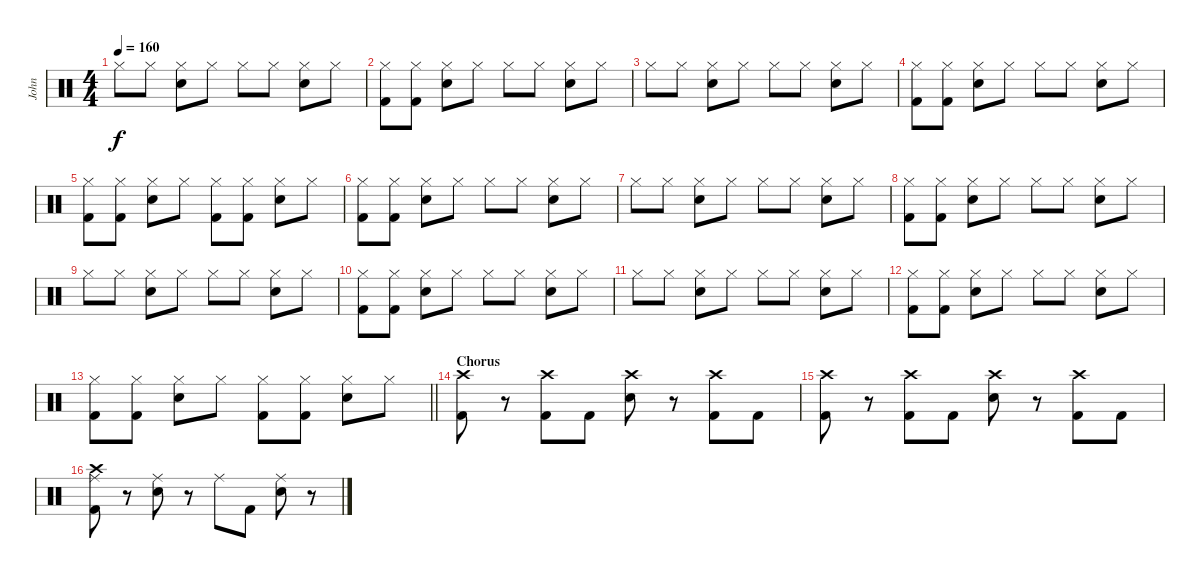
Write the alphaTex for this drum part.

\track ("John" "John") {instrument percussion}
\staff {score}
\articulation defaults
\ts (4 4)
\tempo 160
\clef neutral
\ks c "Hi-Hat (closed)".8{dy f} "Hi-Hat (closed)".8
("Hi-Hat (closed)" "Snare (hit) 2").8 "Hi-Hat (closed)".8 "Hi-Hat (closed)".8 "Hi-Hat (closed)".8 ("Hi-Hat (closed)" "Snare (hit) 2").8 "Hi-Hat (closed)".8 |
("Hi-Hat (closed)" "Kick (hit) 2").8 ("Hi-Hat (closed)" "Kick (hit) 2").8 ("Hi-Hat (closed)" "Snare (hit) 2").8 "Hi-Hat (closed)".8 "Hi-Hat (closed)".8 "Hi-Hat (closed)".8 ("Hi-Hat (closed)" "Snare (hit) 2").8 "Hi-Hat (closed)".8 |
"Hi-Hat (closed)".8 "Hi-Hat (closed)".8 ("Hi-Hat (closed)" "Snare (hit) 2").8 "Hi-Hat (closed)".8 "Hi-Hat (closed)".8 "Hi-Hat (closed)".8 ("Hi-Hat (closed)" "Snare (hit) 2").8 "Hi-Hat (closed)".8 |
("Hi-Hat (closed)" "Kick (hit) 2").8 ("Hi-Hat (closed)" "Kick (hit) 2").8 ("Hi-Hat (closed)" "Snare (hit) 2").8 "Hi-Hat (closed)".8 "Hi-Hat (closed)".8 "Hi-Hat (closed)".8 ("Hi-Hat (closed)" "Snare (hit) 2").8 "Hi-Hat (closed)".8 |
("Hi-Hat (closed)" "Kick (hit) 2").8 ("Hi-Hat (closed)" "Kick (hit) 2").8 ("Hi-Hat (closed)" "Snare (hit) 2").8 "Hi-Hat (closed)".8 ("Hi-Hat (closed)" "Kick (hit) 2").8 ("Hi-Hat (closed)" "Kick (hit) 2").8 ("Hi-Hat (closed)" "Snare (hit) 2").8 "Hi-Hat (closed)".8 |
("Hi-Hat (closed)" "Kick (hit) 2").8 ("Hi-Hat (closed)" "Kick (hit) 2").8 ("Hi-Hat (closed)" "Snare (hit) 2").8 "Hi-Hat (closed)".8 "Hi-Hat (closed)".8 "Hi-Hat (closed)".8 ("Hi-Hat (closed)" "Snare (hit) 2").8 "Hi-Hat (closed)".8 |
"Hi-Hat (closed)".8 "Hi-Hat (closed)".8 ("Hi-Hat (closed)" "Snare (hit) 2").8 "Hi-Hat (closed)".8 "Hi-Hat (closed)".8 "Hi-Hat (closed)".8 ("Hi-Hat (closed)" "Snare (hit) 2").8 "Hi-Hat (closed)".8 |
("Hi-Hat (closed)" "Kick (hit) 2").8 ("Hi-Hat (closed)" "Kick (hit) 2").8 ("Hi-Hat (closed)" "Snare (hit) 2").8 "Hi-Hat (closed)".8 "Hi-Hat (closed)".8 "Hi-Hat (closed)".8 ("Hi-Hat (closed)" "Snare (hit) 2").8 "Hi-Hat (closed)".8 |
"Hi-Hat (closed)".8 "Hi-Hat (closed)".8 ("Hi-Hat (closed)" "Snare (hit) 2").8 "Hi-Hat (closed)".8 "Hi-Hat (closed)".8 "Hi-Hat (closed)".8 ("Hi-Hat (closed)" "Snare (hit) 2").8 "Hi-Hat (closed)".8 |
("Hi-Hat (closed)" "Kick (hit) 2").8 ("Hi-Hat (closed)" "Kick (hit) 2").8 ("Hi-Hat (closed)" "Snare (hit) 2").8 "Hi-Hat (closed)".8 "Hi-Hat (closed)".8 "Hi-Hat (closed)".8 ("Hi-Hat (closed)" "Snare (hit) 2").8 "Hi-Hat (closed)".8 |
"Hi-Hat (closed)".8 "Hi-Hat (closed)".8 ("Hi-Hat (closed)" "Snare (hit) 2").8 "Hi-Hat (closed)".8 "Hi-Hat (closed)".8 "Hi-Hat (closed)".8 ("Hi-Hat (closed)" "Snare (hit) 2").8 "Hi-Hat (closed)".8 |
("Hi-Hat (closed)" "Kick (hit) 2").8 ("Hi-Hat (closed)" "Kick (hit) 2").8 ("Hi-Hat (closed)" "Snare (hit) 2").8 "Hi-Hat (closed)".8 "Hi-Hat (closed)".8 "Hi-Hat (closed)".8 ("Hi-Hat (closed)" "Snare (hit) 2").8 "Hi-Hat (closed)".8 |
\barLineRight lightlight
("Hi-Hat (closed)" "Kick (hit) 2").8 ("Hi-Hat (closed)" "Kick (hit) 2").8 ("Hi-Hat (closed)" "Snare (hit) 2").8 "Hi-Hat (closed)".8 ("Hi-Hat (closed)" "Kick (hit) 2").8 ("Hi-Hat (closed)" "Kick (hit) 2").8 ("Hi-Hat (closed)" "Snare (hit) 2").8 "Hi-Hat (closed)".8 |
\section ("" "Chorus")
("Crash high (hit)" "Kick (hit) 2").8 r.8 ("Crash high (hit)" "Kick (hit) 2").8 "Kick (hit) 2".8 ("Crash high (hit)" "Snare (hit) 2").8 r.8 ("Crash high (hit)" "Kick (hit) 2").8 "Kick (hit) 2".8 |
("Crash high (hit)" "Kick (hit) 2").8 r.8 ("Crash high (hit)" "Kick (hit) 2").8 "Kick (hit) 2".8 ("Crash high (hit)" "Snare (hit) 2").8 r.8 ("Crash high (hit)" "Kick (hit) 2").8 "Kick (hit) 2".8 |
("Ride (middle)" "Crash high (hit)" "Kick (hit) 2").8 r.8 ("Ride (middle)" "Snare (hit) 2").8 r.8 "Ride (middle)".8 "Kick (hit) 2".8 ("Ride (middle)" "Snare (hit) 2").8 r.8
